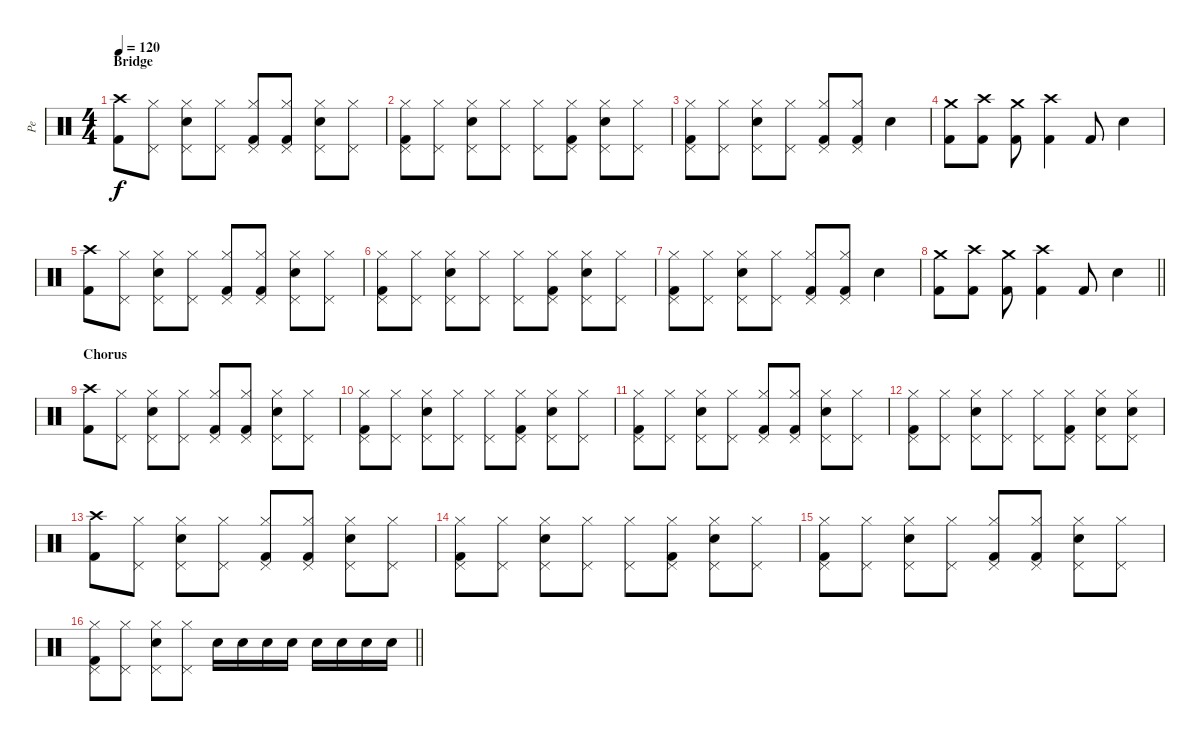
\track ("Pe" "Pe") {instrument percussion}
\staff {score}
\articulation defaults
\ts (4 4)
\section ("" "Bridge")
\tempo 120
\clef neutral
\ks c
("Kick (hit) 2" "Crash high (hit)").8{dy f} ("Hi-Hat (closed)" "Pedal Hi-Hat (hit)").8 ("Snare (hit) 2" "Hi-Hat (closed)" "Pedal Hi-Hat (hit)").8 ("Hi-Hat (closed)" "Pedal Hi-Hat (hit)").8 ("Kick (hit) 2" "Hi-Hat (closed)" "Pedal Hi-Hat (hit)").8 ("Kick (hit) 2" "Hi-Hat (closed)" "Pedal Hi-Hat (hit)").8 ("Snare (hit) 2" "Hi-Hat (closed)" "Pedal Hi-Hat (hit)").8 ("Hi-Hat (closed)" "Pedal Hi-Hat (hit)").8 |
("Kick (hit) 2" "Hi-Hat (closed)" "Pedal Hi-Hat (hit)").8 ("Hi-Hat (closed)" "Pedal Hi-Hat (hit)").8 ("Snare (hit) 2" "Hi-Hat (closed)" "Pedal Hi-Hat (hit)").8 ("Hi-Hat (closed)" "Pedal Hi-Hat (hit)").8 ("Hi-Hat (closed)" "Pedal Hi-Hat (hit)").8 ("Kick (hit) 2" "Hi-Hat (closed)" "Pedal Hi-Hat (hit)").8 ("Snare (hit) 2" "Hi-Hat (closed)" "Pedal Hi-Hat (hit)").8 ("Hi-Hat (closed)" "Pedal Hi-Hat (hit)").8 |
("Kick (hit) 2" "Hi-Hat (closed)" "Pedal Hi-Hat (hit)").8 ("Hi-Hat (closed)" "Pedal Hi-Hat (hit)").8 ("Snare (hit) 2" "Hi-Hat (closed)" "Pedal Hi-Hat (hit)").8 ("Hi-Hat (closed)" "Pedal Hi-Hat (hit)").8 ("Kick (hit) 2" "Hi-Hat (closed)" "Pedal Hi-Hat (hit)").8 ("Kick (hit) 2" "Hi-Hat (closed)" "Pedal Hi-Hat (hit)").8 "Snare (hit) 2".4 |
("Kick (hit) 2" "Crash medium (hit)").8 ("Kick (hit) 2" "Crash high (hit)").8 ("Kick (hit) 2" "Crash medium (hit)").8 ("Kick (hit) 2" "Crash high (hit)").4 "Kick (hit) 2".8 "Snare (hit) 2".4 |
("Kick (hit) 2" "Crash high (hit)").8 ("Hi-Hat (closed)" "Pedal Hi-Hat (hit)").8 ("Snare (hit) 2" "Hi-Hat (closed)" "Pedal Hi-Hat (hit)").8 ("Hi-Hat (closed)" "Pedal Hi-Hat (hit)").8 ("Kick (hit) 2" "Hi-Hat (closed)" "Pedal Hi-Hat (hit)").8 ("Kick (hit) 2" "Hi-Hat (closed)" "Pedal Hi-Hat (hit)").8 ("Snare (hit) 2" "Hi-Hat (closed)" "Pedal Hi-Hat (hit)").8 ("Hi-Hat (closed)" "Pedal Hi-Hat (hit)").8 |
("Kick (hit) 2" "Hi-Hat (closed)" "Pedal Hi-Hat (hit)").8 ("Hi-Hat (closed)" "Pedal Hi-Hat (hit)").8 ("Snare (hit) 2" "Hi-Hat (closed)" "Pedal Hi-Hat (hit)").8 ("Hi-Hat (closed)" "Pedal Hi-Hat (hit)").8 ("Hi-Hat (closed)" "Pedal Hi-Hat (hit)").8 ("Kick (hit) 2" "Hi-Hat (closed)" "Pedal Hi-Hat (hit)").8 ("Snare (hit) 2" "Hi-Hat (closed)" "Pedal Hi-Hat (hit)").8 ("Hi-Hat (closed)" "Pedal Hi-Hat (hit)").8 |
("Kick (hit) 2" "Hi-Hat (closed)" "Pedal Hi-Hat (hit)").8 ("Hi-Hat (closed)" "Pedal Hi-Hat (hit)").8 ("Snare (hit) 2" "Hi-Hat (closed)" "Pedal Hi-Hat (hit)").8 ("Hi-Hat (closed)" "Pedal Hi-Hat (hit)").8 ("Kick (hit) 2" "Hi-Hat (closed)" "Pedal Hi-Hat (hit)").8 ("Kick (hit) 2" "Hi-Hat (closed)" "Pedal Hi-Hat (hit)").8 "Snare (hit) 2".4 |
\barLineRight lightlight
("Kick (hit) 2" "Crash medium (hit)").8 ("Kick (hit) 2" "Crash high (hit)").8 ("Kick (hit) 2" "Crash medium (hit)").8 ("Kick (hit) 2" "Crash high (hit)").4 "Kick (hit) 2".8 "Snare (hit) 2".4 |
\section ("" "Chorus")
("Kick (hit) 2" "Crash high (hit)").8 ("Hi-Hat (closed)" "Pedal Hi-Hat (hit)").8 ("Snare (hit) 2" "Hi-Hat (closed)" "Pedal Hi-Hat (hit)").8 ("Hi-Hat (closed)" "Pedal Hi-Hat (hit)").8 ("Kick (hit) 2" "Hi-Hat (closed)" "Pedal Hi-Hat (hit)").8 ("Kick (hit) 2" "Hi-Hat (closed)" "Pedal Hi-Hat (hit)").8 ("Snare (hit) 2" "Hi-Hat (closed)" "Pedal Hi-Hat (hit)").8 ("Hi-Hat (closed)" "Pedal Hi-Hat (hit)").8 |
("Kick (hit) 2" "Hi-Hat (closed)" "Pedal Hi-Hat (hit)").8 ("Hi-Hat (closed)" "Pedal Hi-Hat (hit)").8 ("Snare (hit) 2" "Hi-Hat (closed)" "Pedal Hi-Hat (hit)").8 ("Hi-Hat (closed)" "Pedal Hi-Hat (hit)").8 ("Hi-Hat (closed)" "Pedal Hi-Hat (hit)").8 ("Kick (hit) 2" "Hi-Hat (closed)" "Pedal Hi-Hat (hit)").8 ("Snare (hit) 2" "Hi-Hat (closed)" "Pedal Hi-Hat (hit)").8 ("Hi-Hat (closed)" "Pedal Hi-Hat (hit)").8 |
("Kick (hit) 2" "Hi-Hat (closed)" "Pedal Hi-Hat (hit)").8 ("Hi-Hat (closed)" "Pedal Hi-Hat (hit)").8 ("Snare (hit) 2" "Hi-Hat (closed)" "Pedal Hi-Hat (hit)").8 ("Hi-Hat (closed)" "Pedal Hi-Hat (hit)").8 ("Kick (hit) 2" "Hi-Hat (closed)" "Pedal Hi-Hat (hit)").8 ("Kick (hit) 2" "Hi-Hat (closed)" "Pedal Hi-Hat (hit)").8 ("Snare (hit) 2" "Hi-Hat (closed)" "Pedal Hi-Hat (hit)").8 ("Hi-Hat (closed)" "Pedal Hi-Hat (hit)").8 |
("Kick (hit) 2" "Hi-Hat (closed)" "Pedal Hi-Hat (hit)").8 ("Hi-Hat (closed)" "Pedal Hi-Hat (hit)").8 ("Snare (hit) 2" "Hi-Hat (closed)" "Pedal Hi-Hat (hit)").8 ("Hi-Hat (closed)" "Pedal Hi-Hat (hit)").8 ("Hi-Hat (closed)" "Pedal Hi-Hat (hit)").8 ("Kick (hit) 2" "Hi-Hat (closed)" "Pedal Hi-Hat (hit)").8 ("Snare (hit) 2" "Hi-Hat (closed)" "Pedal Hi-Hat (hit)").8 ("Snare (hit) 2" "Hi-Hat (closed)" "Pedal Hi-Hat (hit)").8 |
("Kick (hit) 2" "Crash high (hit)").8 ("Hi-Hat (closed)" "Pedal Hi-Hat (hit)").8 ("Snare (hit) 2" "Hi-Hat (closed)" "Pedal Hi-Hat (hit)").8 ("Hi-Hat (closed)" "Pedal Hi-Hat (hit)").8 ("Kick (hit) 2" "Hi-Hat (closed)" "Pedal Hi-Hat (hit)").8 ("Kick (hit) 2" "Hi-Hat (closed)" "Pedal Hi-Hat (hit)").8 ("Snare (hit) 2" "Hi-Hat (closed)" "Pedal Hi-Hat (hit)").8 ("Hi-Hat (closed)" "Pedal Hi-Hat (hit)").8 |
("Kick (hit) 2" "Hi-Hat (closed)" "Pedal Hi-Hat (hit)").8 ("Hi-Hat (closed)" "Pedal Hi-Hat (hit)").8 ("Snare (hit) 2" "Hi-Hat (closed)" "Pedal Hi-Hat (hit)").8 ("Hi-Hat (closed)" "Pedal Hi-Hat (hit)").8 ("Hi-Hat (closed)" "Pedal Hi-Hat (hit)").8 ("Kick (hit) 2" "Hi-Hat (closed)" "Pedal Hi-Hat (hit)").8 ("Snare (hit) 2" "Hi-Hat (closed)" "Pedal Hi-Hat (hit)").8 ("Hi-Hat (closed)" "Pedal Hi-Hat (hit)").8 |
("Kick (hit) 2" "Hi-Hat (closed)" "Pedal Hi-Hat (hit)").8 ("Hi-Hat (closed)" "Pedal Hi-Hat (hit)").8 ("Snare (hit) 2" "Hi-Hat (closed)" "Pedal Hi-Hat (hit)").8 ("Hi-Hat (closed)" "Pedal Hi-Hat (hit)").8 ("Kick (hit) 2" "Hi-Hat (closed)" "Pedal Hi-Hat (hit)").8 ("Kick (hit) 2" "Hi-Hat (closed)" "Pedal Hi-Hat (hit)").8 ("Snare (hit) 2" "Hi-Hat (closed)" "Pedal Hi-Hat (hit)").8 ("Hi-Hat (closed)" "Pedal Hi-Hat (hit)").8 |
\barLineRight lightlight
("Kick (hit) 2" "Hi-Hat (closed)" "Pedal Hi-Hat (hit)").8 ("Hi-Hat (closed)" "Pedal Hi-Hat (hit)").8 ("Snare (hit) 2" "Hi-Hat (closed)" "Pedal Hi-Hat (hit)").8 ("Hi-Hat (closed)" "Pedal Hi-Hat (hit)").8 "Snare (hit) 2".16 "Snare (hit) 2".16 "Snare (hit) 2".16 "Snare (hit) 2".16 "Snare (hit) 2".16 "Snare (hit) 2".16 "Snare (hit) 2".16 "Snare (hit) 2".16
